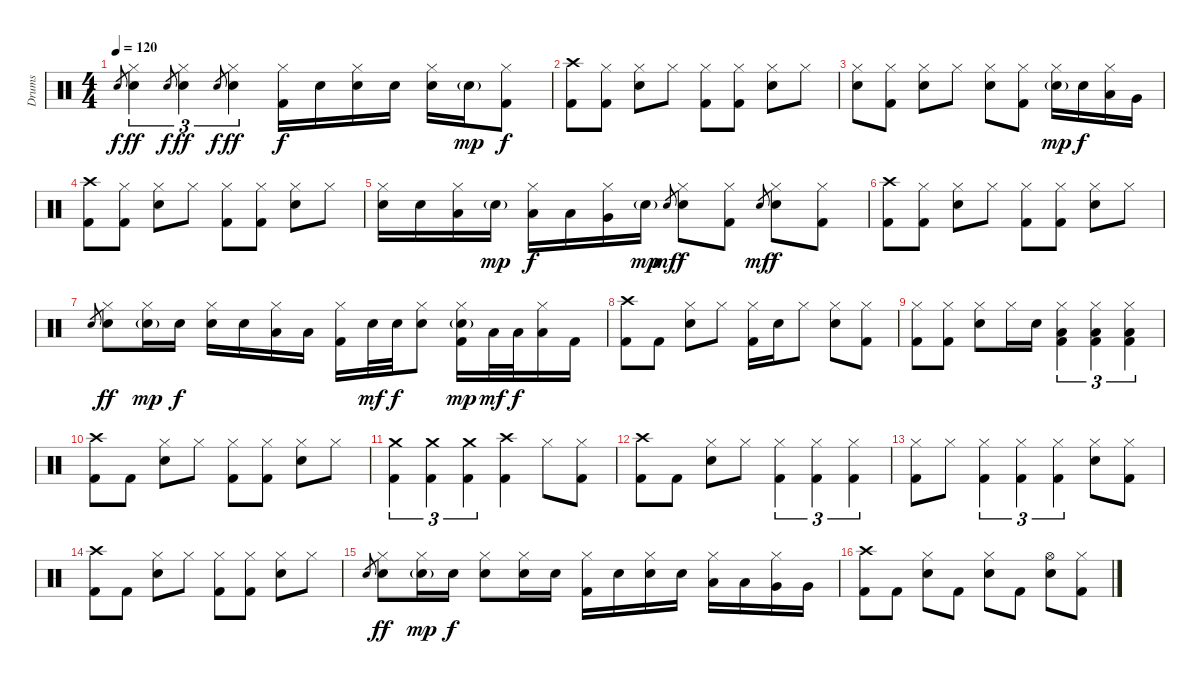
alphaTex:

\track ("Drums" "Drums") {instrument percussion}
\staff {score}
\articulation defaults
\ts (4 4)
\tempo 120
\clef neutral
\ks c "Electric Snare (hit)".8{gr dy f}
("Hi-Hat (closed)" "Electric Snare (hit)").4{tu (3 2) dy ff} "Electric Snare (hit)".8{gr dy f} ("Hi-Hat (closed)" "Electric Snare (hit)").4{tu (3 2) dy ff} "Electric Snare (hit)".8{gr dy f} ("Hi-Hat (closed)" "Electric Snare (hit)").4{tu (3 2) dy ff} ("Hi-Hat (closed)" "Kick (hit) 2").16{dy f} "Electric Snare (hit)".16 ("Hi-Hat (closed)" "Electric Snare (hit)").16 "Electric Snare (hit)".16 ("Hi-Hat (closed)" "Electric Snare (hit)").16 "Electric Snare (hit)"{g}.16{dy mp} ("Hi-Hat (closed)" "Kick (hit) 2").8{dy f} |
("Crash high (hit)" "Kick (hit) 2").8 ("Hi-Hat (closed)" "Kick (hit) 2").8 ("Hi-Hat (closed)" "Electric Snare (hit)").8 "Hi-Hat (closed)".8 ("Hi-Hat (closed)" "Kick (hit) 2").8 ("Hi-Hat (closed)" "Kick (hit) 2").8 ("Hi-Hat (closed)" "Electric Snare (hit)").8 "Hi-Hat (closed)".8 |
("Hi-Hat (closed)" "Electric Snare (hit)").8 ("Hi-Hat (closed)" "Kick (hit) 2").8 ("Hi-Hat (closed)" "Electric Snare (hit)").8 "Hi-Hat (closed)".8 ("Hi-Hat (closed)" "Electric Snare (hit)").8 ("Hi-Hat (closed)" "Kick (hit) 2").8 ("Hi-Hat (closed)" "Electric Snare (hit)"{g}).16{dy mp} "Electric Snare (hit)".16{dy f} ("Hi-Hat (closed)" "Low Tom (hit)").16 "Very Low Tom (hit)".16 |
("Crash high (hit)" "Kick (hit) 2").8 ("Hi-Hat (closed)" "Kick (hit) 2").8 ("Hi-Hat (closed)" "Electric Snare (hit)").8 "Hi-Hat (closed)".8 ("Hi-Hat (closed)" "Kick (hit) 2").8 ("Hi-Hat (closed)" "Kick (hit) 2").8 ("Hi-Hat (closed)" "Electric Snare (hit)").8 "Hi-Hat (closed)".8 |
("Hi-Hat (closed)" "Electric Snare (hit)").16 "Electric Snare (hit)".16 ("Hi-Hat (closed)" "Low Tom (hit)").16 "Electric Snare (hit)"{g}.16{dy mp} ("Hi-Hat (closed)" "Low Tom (hit)").16{dy f} "Low Tom (hit)".16 ("Hi-Hat (closed)" "Very Low Tom (hit)").16 "Electric Snare (hit)"{g}.16{dy mp} "Electric Snare (hit)".8{gr dy mf} ("Hi-Hat (closed)" "Electric Snare (hit)").8{dy f} ("Hi-Hat (closed)" "Kick (hit) 2").8 "Electric Snare (hit)".8{gr dy mf} ("Hi-Hat (closed)" "Electric Snare (hit)").8{dy f} ("Hi-Hat (closed)" "Kick (hit) 2").8 |
("Crash high (hit)" "Kick (hit) 2").8 ("Hi-Hat (closed)" "Kick (hit) 2").8 ("Hi-Hat (closed)" "Electric Snare (hit)").8 "Hi-Hat (closed)".8 ("Hi-Hat (closed)" "Kick (hit) 2").8 ("Hi-Hat (closed)" "Kick (hit) 2").8 ("Hi-Hat (closed)" "Electric Snare (hit)").8 "Hi-Hat (closed)".8 |
"Electric Snare (hit)".8{gr} ("Hi-Hat (closed)" "Electric Snare (hit)").8{dy ff} ("Hi-Hat (closed)" "Electric Snare (hit)"{g}).16{dy mp} "Electric Snare (hit)".16{dy f} ("Hi-Hat (closed)" "Electric Snare (hit)").16 "Electric Snare (hit)".16 ("Hi-Hat (closed)" "Low Tom (hit)").16 "Low Tom (hit)".16 ("Hi-Hat (closed)" "Kick (hit) 2").16 "Electric Snare (hit)".32{dy mf} "Electric Snare (hit)".32{dy f} ("Hi-Hat (closed)" "Electric Snare (hit)").8 ("Hi-Hat (closed)" "Electric Snare (hit)"{g} "Kick (hit) 2").16{dy mp} "Low Tom (hit)".32{dy mf} "Low Tom (hit)".32{dy f} ("Hi-Hat (closed)" "Low Tom (hit)").16 "Kick (hit) 2".16 |
("Crash high (hit)" "Kick (hit) 2").8 "Kick (hit) 2".8 ("Hi-Hat (closed)" "Electric Snare (hit)").8 "Hi-Hat (closed)".8 ("Hi-Hat (closed)" "Kick (hit) 2").16 "Electric Snare (hit)".16 "Hi-Hat (closed)".8 ("Hi-Hat (closed)" "Electric Snare (hit)").8 ("Hi-Hat (closed)" "Kick (hit) 2").8 |
("Hi-Hat (closed)" "Kick (hit) 2").8 ("Hi-Hat (closed)" "Kick (hit) 2").8 ("Hi-Hat (closed)" "Electric Snare (hit)").8 "Hi-Hat (closed)".16 "Electric Snare (hit)".16 ("Hi-Hat (closed)" "Low Tom (hit)" "Kick (hit) 2").4{tu (3 2)} ("Hi-Hat (closed)" "Low Tom (hit)" "Kick (hit) 2").4{tu (3 2)} ("Hi-Hat (closed)" "Low Tom (hit)" "Kick (hit) 2").4{tu (3 2)} |
("Crash high (hit)" "Kick (hit) 2").8 "Kick (hit) 2".8 ("Hi-Hat (closed)" "Electric Snare (hit)").8 "Hi-Hat (closed)".8 ("Hi-Hat (closed)" "Kick (hit) 2").8 ("Hi-Hat (closed)" "Kick (hit) 2").8 ("Hi-Hat (closed)" "Electric Snare (hit)").8 "Hi-Hat (closed)".8 |
("Crash medium (hit)" "Kick (hit) 2").4{tu (3 2)} ("Crash medium (hit)" "Kick (hit) 2").4{tu (3 2)} ("Crash medium (hit)" "Kick (hit) 2").4{tu (3 2)} ("Crash high (hit)" "Kick (hit) 2").4 "Hi-Hat (closed)".8 ("Hi-Hat (closed)" "Kick (hit) 2").8 |
("Crash high (hit)" "Kick (hit) 2").8 "Kick (hit) 2".8 ("Hi-Hat (closed)" "Electric Snare (hit)").8 "Hi-Hat (closed)".8 ("Hi-Hat (closed)" "Kick (hit) 2").4{tu (3 2)} ("Hi-Hat (closed)" "Kick (hit) 2").4{tu (3 2)} ("Hi-Hat (closed)" "Kick (hit) 2").4{tu (3 2)} |
("Hi-Hat (closed)" "Kick (hit) 2").8 "Hi-Hat (closed)".8 ("Hi-Hat (closed)" "Kick (hit) 2").4{tu (3 2)} ("Hi-Hat (closed)" "Kick (hit) 2").4{tu (3 2)} ("Hi-Hat (closed)" "Kick (hit) 2").4{tu (3 2)} ("Hi-Hat (closed)" "Electric Snare (hit)").8 ("Hi-Hat (closed)" "Kick (hit) 2").8 |
("Crash high (hit)" "Kick (hit) 2").8 "Kick (hit) 2".8 ("Hi-Hat (closed)" "Electric Snare (hit)").8 "Hi-Hat (closed)".8 ("Hi-Hat (closed)" "Kick (hit) 2").8 ("Hi-Hat (closed)" "Kick (hit) 2").8 ("Hi-Hat (closed)" "Electric Snare (hit)").8 "Hi-Hat (closed)".8 |
"Electric Snare (hit)".8{gr} ("Hi-Hat (closed)" "Electric Snare (hit)").8{dy ff} ("Hi-Hat (closed)" "Electric Snare (hit)"{g}).16{dy mp} "Electric Snare (hit)".16{dy f} ("Hi-Hat (closed)" "Electric Snare (hit)").8 ("Hi-Hat (closed)" "Electric Snare (hit)").16 "Electric Snare (hit)".16 ("Hi-Hat (closed)" "Kick (hit) 2").16 "Electric Snare (hit)".16 ("Hi-Hat (closed)" "Electric Snare (hit)").16 "Electric Snare (hit)".16 ("Hi-Hat (closed)" "Low Tom (hit)").16 "Low Tom (hit)".16 ("Hi-Hat (closed)" "Very Low Tom (hit)").16 "Very Low Tom (hit)".16 |
("Crash high (hit)" "Kick (hit) 2").8 "Kick (hit) 2".8 ("Hi-Hat (closed)" "Electric Snare (hit)").8 "Kick (hit) 2".8 ("Hi-Hat (closed)" "Electric Snare (hit)").8 "Kick (hit) 2".8 ("Hi-Hat (open)" "Electric Snare (hit)").8 ("Hi-Hat (closed)" "Kick (hit) 2").8
